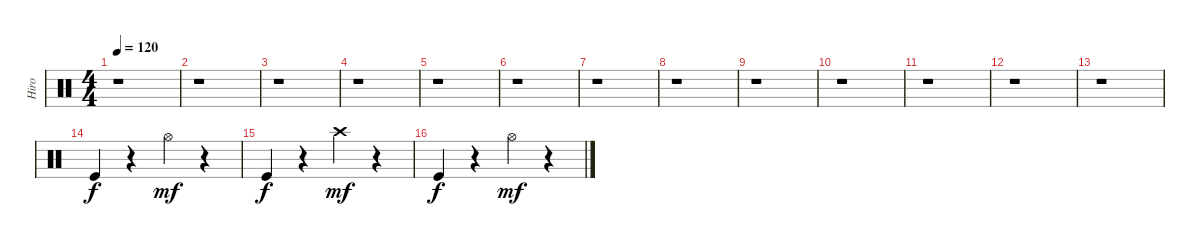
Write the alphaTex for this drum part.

\track ("Hiro" "Hiro") {instrument percussion}
\staff {score}
\articulation defaults
\ts (4 4)
\tempo 120
\clef neutral
\ks c
r.1{dy f} |
r.1 |
r.1 |
r.1 |
r.1 |
r.1 |
r.1 |
r.1 |
r.1 |
r.1 |
r.1 |
r.1 |
r.1 |
"Kick (hit)".4 r.4 "Hi-Hat (open)".4{dy mf} r.4 |
"Kick (hit)".4{dy f} r.4 "Crash high (hit)".4{dy mf} r.4 |
"Kick (hit)".4{dy f} r.4 "Hi-Hat (open)".4{dy mf} r.4
